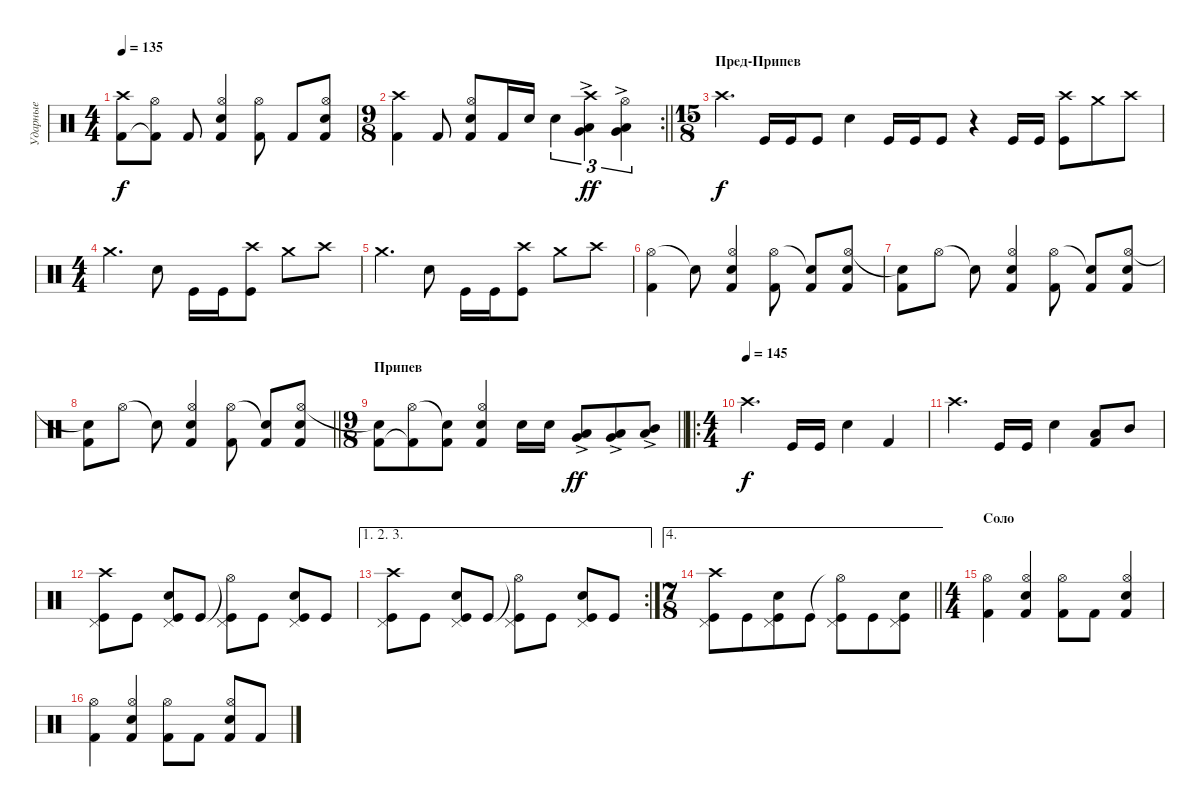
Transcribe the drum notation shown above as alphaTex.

\track ("Ударные" "Ударные") {instrument percussion}
\staff
\articulation defaults
\ts (4 4)
\tempo 135
\clef neutral
\ks c
("Crash high (hit)" "Kick (hit) 2").8{dy f} ("Hi-Hat (open)" "Kick (hit) 2"{t}).8 "Kick (hit) 2".8 ("Hi-Hat (open)" "Snare (hit) 2" "Kick (hit) 2").4 ("Hi-Hat (open)" "Kick (hit) 2").8 "Kick (hit) 2".8 ("Hi-Hat (open)" "Snare (hit) 2" "Kick (hit) 2").8 |
\rc 2
\ts (9 8)
\barLineRight lightlight
("Crash high (hit)" "Kick (hit) 2").4 "Kick (hit) 2".8 ("Hi-Hat (open)" "Snare (hit) 2" "Kick (hit) 2").8 "Kick (hit) 2".16 "Snare (hit) 2".16 "Snare (hit) 2".4{tu (3 2)} ("Low Floor Tom (hit)"{ac} "Very Low Tom (hit)" "Crash high (hit)").4{tu (3 2) dy ff} ("Very Low Tom (hit)"{ac} "Low Tom (hit)" "Hi-Hat (open)").4{tu (3 2)} |
\ts (15 8)
\section ("" "Пред-Припев")
"Crash high (hit)".4{d dy f} "Kick (hit)".16 "Kick (hit)".16 "Kick (hit)".8 "Snare (hit) 2".4 "Kick (hit)".16 "Kick (hit)".16 "Kick (hit)".8 r.4 "Kick (hit)".16 "Kick (hit)".16 ("Crash high (hit)" "Kick (hit)").8 "Crash medium (hit)".8 "Crash high (hit)".8 |
\ts (4 4)
"Crash medium (hit)".4{d} "Snare (hit) 2".8 "Kick (hit)".16 "Kick (hit)".16 ("Crash high (hit)" "Kick (hit)").8 "Crash medium (hit)".8 "Crash high (hit)".8 |
"Crash medium (hit)".4{d} "Snare (hit) 2".8 "Kick (hit)".16 "Kick (hit)".16 ("Crash high (hit)" "Kick (hit)").8 "Crash medium (hit)".8 "Crash high (hit)".8 |
("Hi-Hat (open)" "Kick (hit) 2").4 "Snare (hit)"{t}.8 ("Hi-Hat (open)" "Snare (hit) 2" "Kick (hit) 2").4 ("Hi-Hat (open)" "Kick (hit) 2").8 ("Snare (hit)"{t} "Kick (hit) 2").8 ("Hi-Hat (open)" "Snare (hit) 2" "Kick (hit) 2").8 |
("Snare (hit)"{t} "Kick (hit) 2").8 "Hi-Hat (open)".8 "Snare (hit)"{t}.8 ("Hi-Hat (open)" "Snare (hit) 2" "Kick (hit) 2").4 ("Hi-Hat (open)" "Kick (hit) 2").8 ("Snare (hit)"{t} "Kick (hit) 2").8 ("Hi-Hat (open)" "Snare (hit) 2" "Kick (hit) 2").8 |
\barLineRight lightlight
("Snare (hit)"{t} "Kick (hit) 2").8 "Hi-Hat (open)".8 "Snare (hit)"{t}.8 ("Hi-Hat (open)" "Snare (hit) 2" "Kick (hit) 2").4 ("Hi-Hat (open)" "Kick (hit) 2").8 ("Snare (hit)"{t} "Kick (hit) 2").8 ("Hi-Hat (open)" "Snare (hit) 2" "Kick (hit) 2").8 |
\ts (9 8)
\section ("" "Припев")
\barLineRight lightlight
("Snare (hit)"{t} "Kick (hit) 2").8 ("Hi-Hat (open)" "Kick (hit) 2"{t}).8 ("Snare (hit)"{t} "Kick (hit) 2").8 ("Hi-Hat (open)" "Snare (hit) 2" "Kick (hit) 2").4 "Snare (hit) 2".16 "Snare (hit) 2".16 ("Low Floor Tom (hit)"{ac} "Very Low Tom (hit)").8{dy ff} ("Very Low Tom (hit)"{ac} "Low Tom (hit)").8 ("Low Tom (hit)"{ac} "Mid Tom (hit)").8 |
\ro
\ts (4 4)
\tempo (145)
"Crash high (hit)".4{d dy f} "Kick (hit)".16 "Kick (hit)".16 "Snare (hit) 2".4 "Kick (hit) 2".4 |
"Crash high (hit)".4{d} "Kick (hit)".16 "Kick (hit)".16 "Snare (hit) 2".4 ("Low Tom (hit)" "Kick (hit) 2").8 "Mid Tom (hit)".8 |
("Crash high (hit)" "Pedal Hi-Hat (hit)" "Kick (hit)").8 "Kick (hit)".8 ("Pedal Hi-Hat (hit)" "Snare (hit) 2" "Kick (hit)").8 "Kick (hit)".8 ("Hi-Hat (open)"{t} "Pedal Hi-Hat (hit)" "Kick (hit)").8 "Kick (hit)".8 ("Pedal Hi-Hat (hit)" "Snare (hit) 2" "Kick (hit)").8 "Kick (hit)".8 |
\ae (1 2 3)
\rc 2
("Crash high (hit)" "Pedal Hi-Hat (hit)" "Kick (hit)").8 "Kick (hit)".8 ("Pedal Hi-Hat (hit)" "Snare (hit) 2" "Kick (hit)").8 "Kick (hit)".8 ("Hi-Hat (open)"{t} "Pedal Hi-Hat (hit)" "Kick (hit)").8 "Kick (hit)".8 ("Pedal Hi-Hat (hit)" "Snare (hit) 2" "Kick (hit)").8 "Kick (hit)".8 |
\ae 4
\ts (7 8)
\barLineRight lightlight
("Crash high (hit)" "Pedal Hi-Hat (hit)" "Kick (hit)").8 "Kick (hit)".8 ("Pedal Hi-Hat (hit)" "Snare (hit) 2" "Kick (hit)").8 "Kick (hit)".8 ("Hi-Hat (open)"{t} "Pedal Hi-Hat (hit)" "Kick (hit)").8 "Kick (hit)".8 ("Pedal Hi-Hat (hit)" "Snare (hit) 2" "Kick (hit)").8 |
\ts (4 4)
\section ("" "Соло")
("Hi-Hat (open)" "Kick (hit) 2").4 ("Hi-Hat (open)" "Snare (hit) 2" "Kick (hit) 2").4 ("Hi-Hat (open)" "Kick (hit) 2").8 "Kick (hit) 2".8 ("Hi-Hat (open)" "Snare (hit) 2" "Kick (hit) 2").4 |
("Hi-Hat (open)" "Kick (hit) 2").4 ("Hi-Hat (open)" "Snare (hit) 2" "Kick (hit) 2").4 ("Hi-Hat (open)" "Kick (hit) 2").8 "Kick (hit) 2".8 ("Hi-Hat (open)" "Snare (hit) 2" "Kick (hit) 2").8 "Kick (hit) 2".8
